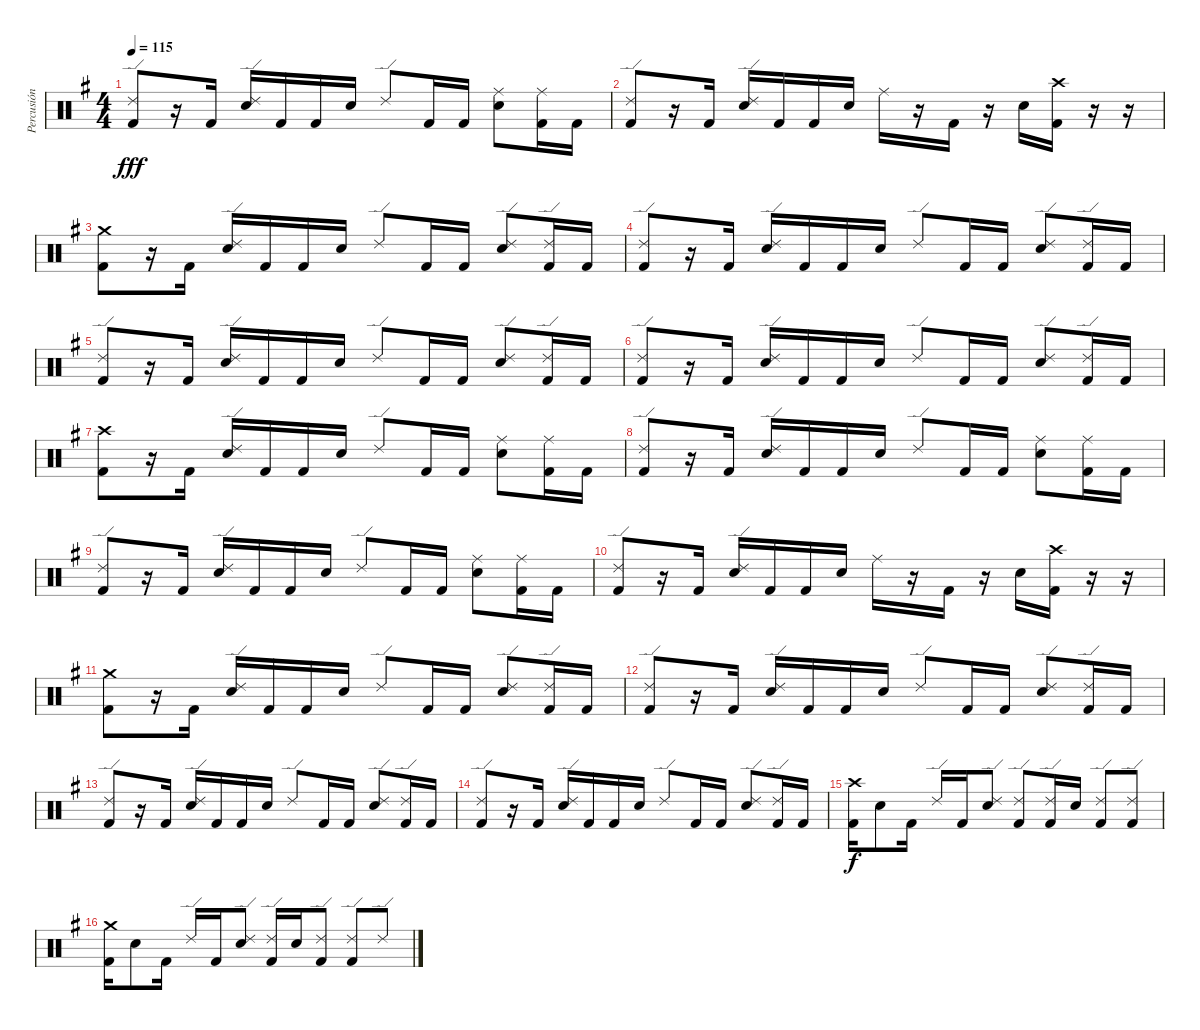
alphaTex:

\track ("Percusión" "Percusión") {instrument percussion}
\staff {score}
\articulation defaults
\ts (4 4)
\tempo 115
\clef neutral
\ks g
("Ride (edge) 2" "Kick (hit) 2").8{dy fff} r.16 "Kick (hit) 2".16 ("Ride (edge) 2" "Electric Snare (hit)").16 "Kick (hit) 2".16 "Kick (hit) 2".16 "Electric Snare (hit)".16 "Ride (edge) 2".8 "Kick (hit) 2".16 "Kick (hit) 2".16 ("Ride (middle)" "Electric Snare (hit)").8 ("Ride (middle)" "Kick (hit) 2").16 "Kick (hit) 2".16 |
("Ride (edge) 2" "Kick (hit) 2").8 r.16 "Kick (hit) 2".16 ("Ride (edge) 2" "Electric Snare (hit)").16 "Kick (hit) 2".16 "Kick (hit) 2".16 "Electric Snare (hit)".16 "Ride (middle)".16 r.16 "Kick (hit) 2".16 r.16 "Electric Snare (hit)".16 ("Crash high (hit)" "Kick (hit) 2").16 r.16 r.16 |
("Crash medium (hit)" "Kick (hit) 2").8 r.16 "Kick (hit) 2".16 ("Ride (edge) 2" "Electric Snare (hit)").16 "Kick (hit) 2".16 "Kick (hit) 2".16 "Electric Snare (hit)".16 "Ride (edge) 2".8 "Kick (hit) 2".16 "Kick (hit) 2".16 ("Ride (edge) 2" "Electric Snare (hit)").8 ("Ride (edge) 2" "Kick (hit) 2").16 "Kick (hit) 2".16 |
("Ride (edge) 2" "Kick (hit) 2").8 r.16 "Kick (hit) 2".16 ("Ride (edge) 2" "Electric Snare (hit)").16 "Kick (hit) 2".16 "Kick (hit) 2".16 "Electric Snare (hit)".16 "Ride (edge) 2".8 "Kick (hit) 2".16 "Kick (hit) 2".16 ("Ride (edge) 2" "Electric Snare (hit)").8 ("Ride (edge) 2" "Kick (hit) 2").16 "Kick (hit) 2".16 |
("Ride (edge) 2" "Kick (hit) 2").8 r.16 "Kick (hit) 2".16 ("Ride (edge) 2" "Electric Snare (hit)").16 "Kick (hit) 2".16 "Kick (hit) 2".16 "Electric Snare (hit)".16 "Ride (edge) 2".8 "Kick (hit) 2".16 "Kick (hit) 2".16 ("Ride (edge) 2" "Electric Snare (hit)").8 ("Ride (edge) 2" "Kick (hit) 2").16 "Kick (hit) 2".16 |
("Ride (edge) 2" "Kick (hit) 2").8 r.16 "Kick (hit) 2".16 ("Ride (edge) 2" "Electric Snare (hit)").16 "Kick (hit) 2".16 "Kick (hit) 2".16 "Electric Snare (hit)".16 "Ride (edge) 2".8 "Kick (hit) 2".16 "Kick (hit) 2".16 ("Ride (edge) 2" "Electric Snare (hit)").8 ("Ride (edge) 2" "Kick (hit) 2").16 "Kick (hit) 2".16 |
("Crash high (hit)" "Kick (hit) 2").8 r.16 "Kick (hit) 2".16 ("Ride (edge) 2" "Electric Snare (hit)").16 "Kick (hit) 2".16 "Kick (hit) 2".16 "Electric Snare (hit)".16 "Ride (edge) 2".8 "Kick (hit) 2".16 "Kick (hit) 2".16 ("Ride (middle)" "Electric Snare (hit)").8 ("Ride (middle)" "Kick (hit) 2").16 "Kick (hit) 2".16 |
("Ride (edge) 2" "Kick (hit) 2").8 r.16 "Kick (hit) 2".16 ("Ride (edge) 2" "Electric Snare (hit)").16 "Kick (hit) 2".16 "Kick (hit) 2".16 "Electric Snare (hit)".16 "Ride (edge) 2".8 "Kick (hit) 2".16 "Kick (hit) 2".16 ("Ride (middle)" "Electric Snare (hit)").8 ("Ride (middle)" "Kick (hit) 2").16 "Kick (hit) 2".16 |
("Ride (edge) 2" "Kick (hit) 2").8 r.16 "Kick (hit) 2".16 ("Ride (edge) 2" "Electric Snare (hit)").16 "Kick (hit) 2".16 "Kick (hit) 2".16 "Electric Snare (hit)".16 "Ride (edge) 2".8 "Kick (hit) 2".16 "Kick (hit) 2".16 ("Ride (middle)" "Electric Snare (hit)").8 ("Ride (middle)" "Kick (hit) 2").16 "Kick (hit) 2".16 |
("Ride (edge) 2" "Kick (hit) 2").8 r.16 "Kick (hit) 2".16 ("Ride (edge) 2" "Electric Snare (hit)").16 "Kick (hit) 2".16 "Kick (hit) 2".16 "Electric Snare (hit)".16 "Ride (middle)".16 r.16 "Kick (hit) 2".16 r.16 "Electric Snare (hit)".16 ("Crash high (hit)" "Kick (hit) 2").16 r.16 r.16 |
("Crash medium (hit)" "Kick (hit) 2").8 r.16 "Kick (hit) 2".16 ("Ride (edge) 2" "Electric Snare (hit)").16 "Kick (hit) 2".16 "Kick (hit) 2".16 "Electric Snare (hit)".16 "Ride (edge) 2".8 "Kick (hit) 2".16 "Kick (hit) 2".16 ("Ride (edge) 2" "Electric Snare (hit)").8 ("Ride (edge) 2" "Kick (hit) 2").16 "Kick (hit) 2".16 |
("Ride (edge) 2" "Kick (hit) 2").8 r.16 "Kick (hit) 2".16 ("Ride (edge) 2" "Electric Snare (hit)").16 "Kick (hit) 2".16 "Kick (hit) 2".16 "Electric Snare (hit)".16 "Ride (edge) 2".8 "Kick (hit) 2".16 "Kick (hit) 2".16 ("Ride (edge) 2" "Electric Snare (hit)").8 ("Ride (edge) 2" "Kick (hit) 2").16 "Kick (hit) 2".16 |
("Ride (edge) 2" "Kick (hit) 2").8 r.16 "Kick (hit) 2".16 ("Ride (edge) 2" "Electric Snare (hit)").16 "Kick (hit) 2".16 "Kick (hit) 2".16 "Electric Snare (hit)".16 "Ride (edge) 2".8 "Kick (hit) 2".16 "Kick (hit) 2".16 ("Ride (edge) 2" "Electric Snare (hit)").8 ("Ride (edge) 2" "Kick (hit) 2").16 "Kick (hit) 2".16 |
("Ride (edge) 2" "Kick (hit) 2").8 r.16 "Kick (hit) 2".16 ("Ride (edge) 2" "Electric Snare (hit)").16 "Kick (hit) 2".16 "Kick (hit) 2".16 "Electric Snare (hit)".16 "Ride (edge) 2".8 "Kick (hit) 2".16 "Kick (hit) 2".16 ("Ride (edge) 2" "Electric Snare (hit)").8 ("Ride (edge) 2" "Kick (hit) 2").16 "Kick (hit) 2".16 |
("Crash high (hit)" "Kick (hit) 2").16{dy f} "Electric Snare (hit)".8 "Kick (hit) 2".16 "Ride (edge) 2".16 "Kick (hit) 2".16 ("Ride (edge) 2" "Electric Snare (hit)").8 ("Ride (edge) 2" "Kick (hit) 2").8 ("Ride (edge) 2" "Kick (hit) 2").16 "Electric Snare (hit)".16 ("Ride (edge) 2" "Kick (hit) 2").8 ("Ride (edge) 2" "Kick (hit) 2").8 |
("Crash medium (hit)" "Kick (hit) 2").16 "Electric Snare (hit)".8 "Kick (hit) 2".16 "Ride (edge) 2".16 "Kick (hit) 2".16 ("Ride (edge) 2" "Electric Snare (hit)").8 ("Ride (edge) 2" "Kick (hit) 2").16 "Electric Snare (hit)".16 ("Ride (edge) 2" "Kick (hit) 2").8 ("Ride (edge) 2" "Kick (hit) 2").8 "Ride (edge) 2".8
